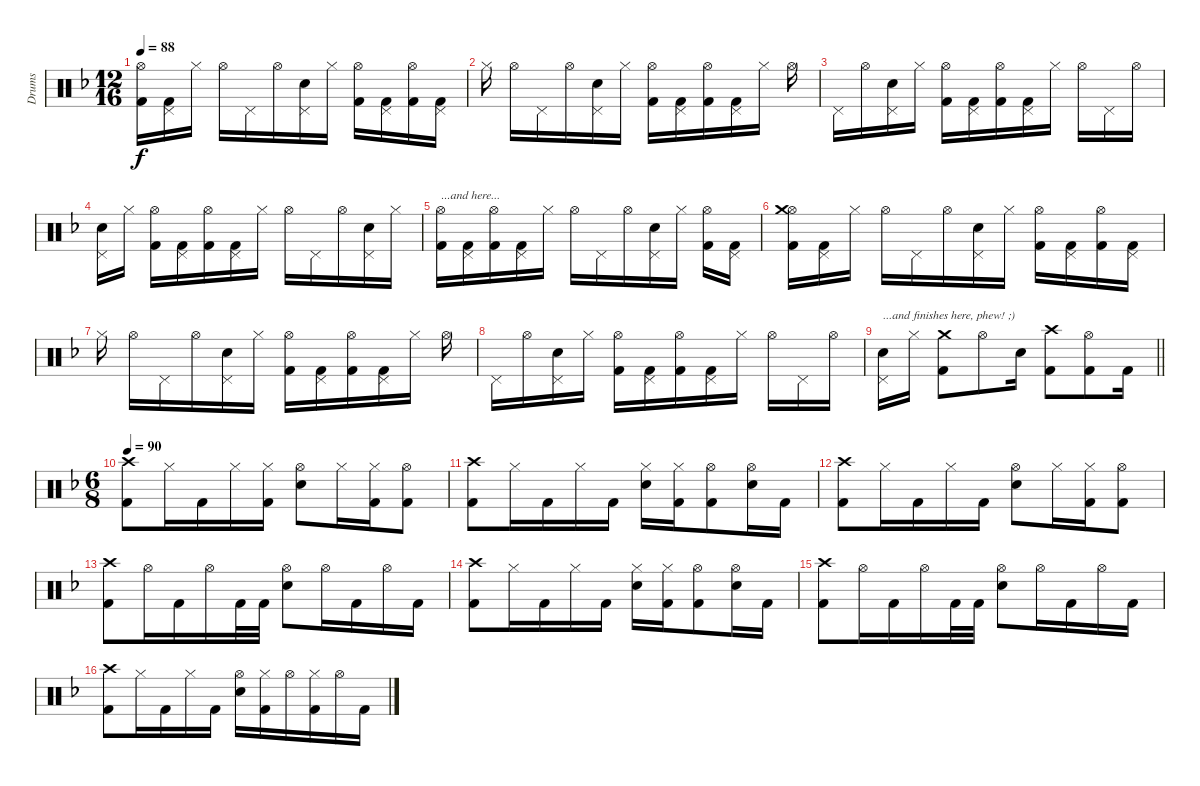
\track ("Drums" "Drums") {instrument percussion}
\staff {score}
\articulation defaults
\ts (12 16)
\tempo 88
\clef neutral
\ks dminor
("Hi-Hat (open)" "Kick (hit) 2").16{dy f beam merge} ("Pedal Hi-Hat (hit)" "Kick (hit) 2").16{beam merge} "Hi-Hat (closed)".16 "Hi-Hat (open)".16 "Pedal Hi-Hat (hit)".16{beam merge} "Hi-Hat (open)".16{beam merge} ("Pedal Hi-Hat (hit)" "Snare (hit) 2").16{beam merge} "Hi-Hat (closed)".16{beam split} ("Hi-Hat (open)" "Kick (hit) 2").16{beam merge} ("Pedal Hi-Hat (hit)" "Kick (hit) 2").16 ("Hi-Hat (open)" "Kick (hit) 2").16{beam merge} ("Pedal Hi-Hat (hit)" "Kick (hit) 2").16 |
"Hi-Hat (closed)".16{beam split} "Hi-Hat (open)".16 "Pedal Hi-Hat (hit)".16{beam merge} "Hi-Hat (open)".16{beam merge} ("Pedal Hi-Hat (hit)" "Snare (hit) 2").16{beam merge} "Hi-Hat (closed)".16{beam split} ("Hi-Hat (open)" "Kick (hit) 2").16{beam merge} ("Pedal Hi-Hat (hit)" "Kick (hit) 2").16 ("Hi-Hat (open)" "Kick (hit) 2").16{beam merge} ("Pedal Hi-Hat (hit)" "Kick (hit) 2").16{beam merge} "Hi-Hat (closed)".16{beam split} "Hi-Hat (open)".16 |
"Pedal Hi-Hat (hit)".16{beam merge} "Hi-Hat (open)".16{beam merge} ("Pedal Hi-Hat (hit)" "Snare (hit) 2").16{beam merge} "Hi-Hat (closed)".16{beam split} ("Hi-Hat (open)" "Kick (hit) 2").16{beam merge} ("Pedal Hi-Hat (hit)" "Kick (hit) 2").16{beam merge} ("Hi-Hat (open)" "Kick (hit) 2").16{beam merge} ("Pedal Hi-Hat (hit)" "Kick (hit) 2").16{beam merge} "Hi-Hat (closed)".16{beam split} "Hi-Hat (open)".16{beam merge} "Pedal Hi-Hat (hit)".16{beam merge} "Hi-Hat (open)".16 |
("Pedal Hi-Hat (hit)" "Snare (hit) 2").16{beam merge} "Hi-Hat (closed)".16{beam split} ("Hi-Hat (open)" "Kick (hit) 2").16{beam merge} ("Pedal Hi-Hat (hit)" "Kick (hit) 2").16{beam merge} ("Hi-Hat (open)" "Kick (hit) 2").16{beam merge} ("Pedal Hi-Hat (hit)" "Kick (hit) 2").16{beam merge} "Hi-Hat (closed)".16{beam split} "Hi-Hat (open)".16 "Pedal Hi-Hat (hit)".16{beam merge} "Hi-Hat (open)".16{beam merge} ("Pedal Hi-Hat (hit)" "Snare (hit) 2").16{beam merge} "Hi-Hat (closed)".16 |
("Hi-Hat (open)" "Kick (hit) 2").16{txt "...and here..." beam merge} ("Pedal Hi-Hat (hit)" "Kick (hit) 2").16 ("Hi-Hat (open)" "Kick (hit) 2").16{beam merge} ("Pedal Hi-Hat (hit)" "Kick (hit) 2").16{beam merge} "Hi-Hat (closed)".16{beam split} "Hi-Hat (open)".16{beam merge} "Pedal Hi-Hat (hit)".16{beam merge} "Hi-Hat (open)".16{beam merge} ("Pedal Hi-Hat (hit)" "Snare (hit) 2").16{beam merge} "Hi-Hat (closed)".16{beam split} ("Hi-Hat (open)" "Kick (hit) 2").16{beam merge} ("Pedal Hi-Hat (hit)" "Kick (hit) 2").16 |
("Hi-Hat (open)" "Crash medium (hit)" "Kick (hit) 2").16{beam merge} ("Pedal Hi-Hat (hit)" "Kick (hit) 2").16{beam merge} "Hi-Hat (closed)".16 "Hi-Hat (open)".16 "Pedal Hi-Hat (hit)".16{beam merge} "Hi-Hat (open)".16{beam merge} ("Pedal Hi-Hat (hit)" "Snare (hit) 2").16{beam merge} "Hi-Hat (closed)".16{beam split} ("Hi-Hat (open)" "Kick (hit) 2").16{beam merge} ("Pedal Hi-Hat (hit)" "Kick (hit) 2").16 ("Hi-Hat (open)" "Kick (hit) 2").16{beam merge} ("Pedal Hi-Hat (hit)" "Kick (hit) 2").16 |
"Hi-Hat (closed)".16{beam split} "Hi-Hat (open)".16 "Pedal Hi-Hat (hit)".16{beam merge} "Hi-Hat (open)".16{beam merge} ("Pedal Hi-Hat (hit)" "Snare (hit) 2").16{beam merge} "Hi-Hat (closed)".16{beam split} ("Hi-Hat (open)" "Kick (hit) 2").16{beam merge} ("Pedal Hi-Hat (hit)" "Kick (hit) 2").16 ("Hi-Hat (open)" "Kick (hit) 2").16{beam merge} ("Pedal Hi-Hat (hit)" "Kick (hit) 2").16{beam merge} "Hi-Hat (closed)".16{beam split} "Hi-Hat (open)".16 |
"Pedal Hi-Hat (hit)".16{beam merge} "Hi-Hat (open)".16{beam merge} ("Pedal Hi-Hat (hit)" "Snare (hit) 2").16{beam merge} "Hi-Hat (closed)".16{beam split} ("Hi-Hat (open)" "Kick (hit) 2").16{beam merge} ("Pedal Hi-Hat (hit)" "Kick (hit) 2").16{beam merge} ("Hi-Hat (open)" "Kick (hit) 2").16{beam merge} ("Pedal Hi-Hat (hit)" "Kick (hit) 2").16{beam merge} "Hi-Hat (closed)".16{beam split} "Hi-Hat (open)".16{beam merge} "Pedal Hi-Hat (hit)".16{beam merge} "Hi-Hat (open)".16 |
\barLineRight lightlight
("Pedal Hi-Hat (hit)" "Snare (hit) 2").16{txt "...and finishes here, phew! ;)" beam merge} "Hi-Hat (closed)".16{beam split} ("Crash medium (hit)" "Kick (hit) 2").8{beam merge} "Hi-Hat (open)".8{beam merge} "Snare (hit) 2".16{beam split} ("Crash high (hit)" "Kick (hit) 2").8{beam merge} ("Hi-Hat (open)" "Kick (hit) 2").8 "Kick (hit) 2".16 |
\ts (6 8)
\tempo 90
("Crash high (hit)" "Kick (hit) 2").8 "Hi-Hat (closed)".16 "Kick (hit) 2".16 "Hi-Hat (closed)".16 ("Hi-Hat (closed)" "Kick (hit) 2").16 ("Hi-Hat (open)" "Snare (hit) 2").8 "Hi-Hat (closed)".16 ("Hi-Hat (closed)" "Kick (hit) 2").16 ("Hi-Hat (open)" "Kick (hit) 2").8 |
("Crash high (hit)" "Kick (hit) 2").8 "Hi-Hat (closed)".16 "Kick (hit) 2".16 "Hi-Hat (closed)".16 "Kick (hit) 2".16 ("Hi-Hat (closed)" "Snare (hit) 2").16 ("Hi-Hat (closed)" "Kick (hit) 2").16 ("Hi-Hat (open)" "Kick (hit) 2").8 ("Hi-Hat (open)" "Snare (hit) 2").16 "Kick (hit) 2".16 |
("Crash high (hit)" "Kick (hit) 2").8 "Hi-Hat (closed)".16 "Kick (hit) 2".16 "Hi-Hat (closed)".16 "Kick (hit) 2".16 ("Hi-Hat (open)" "Snare (hit) 2").8 "Hi-Hat (closed)".16 ("Hi-Hat (closed)" "Kick (hit) 2").16 ("Hi-Hat (open)" "Kick (hit) 2").8 |
("Crash high (hit)" "Kick (hit) 2").8 "Hi-Hat (open)".16 "Kick (hit) 2".16 "Hi-Hat (open)".16 "Kick (hit) 2".32 "Kick (hit) 2".32 ("Hi-Hat (open)" "Snare (hit) 2").8 "Hi-Hat (open)".16 "Kick (hit) 2".16 "Hi-Hat (open)".16 "Kick (hit) 2".16 |
("Crash high (hit)" "Kick (hit) 2").8 "Hi-Hat (closed)".16 "Kick (hit) 2".16 "Hi-Hat (closed)".16 "Kick (hit) 2".16 ("Hi-Hat (closed)" "Snare (hit) 2").16 ("Hi-Hat (closed)" "Kick (hit) 2").16 ("Hi-Hat (open)" "Kick (hit) 2").8 ("Hi-Hat (open)" "Snare (hit) 2").16 "Kick (hit) 2".16 |
("Crash high (hit)" "Kick (hit) 2").8 "Hi-Hat (open)".16 "Kick (hit) 2".16 "Hi-Hat (open)".16 "Kick (hit) 2".32 "Kick (hit) 2".32 ("Hi-Hat (open)" "Snare (hit) 2").8 "Hi-Hat (open)".16 "Kick (hit) 2".16 "Hi-Hat (open)".16 "Kick (hit) 2".16 |
("Crash high (hit)" "Kick (hit) 2").8 "Hi-Hat (closed)".16 "Kick (hit) 2".16 "Hi-Hat (closed)".16 "Kick (hit) 2".16 ("Hi-Hat (open)" "Snare (hit) 2").16 ("Hi-Hat (closed)" "Kick (hit) 2").16 "Hi-Hat (open)".16 ("Hi-Hat (closed)" "Kick (hit) 2").16 "Hi-Hat (open)".16 "Kick (hit) 2".16
